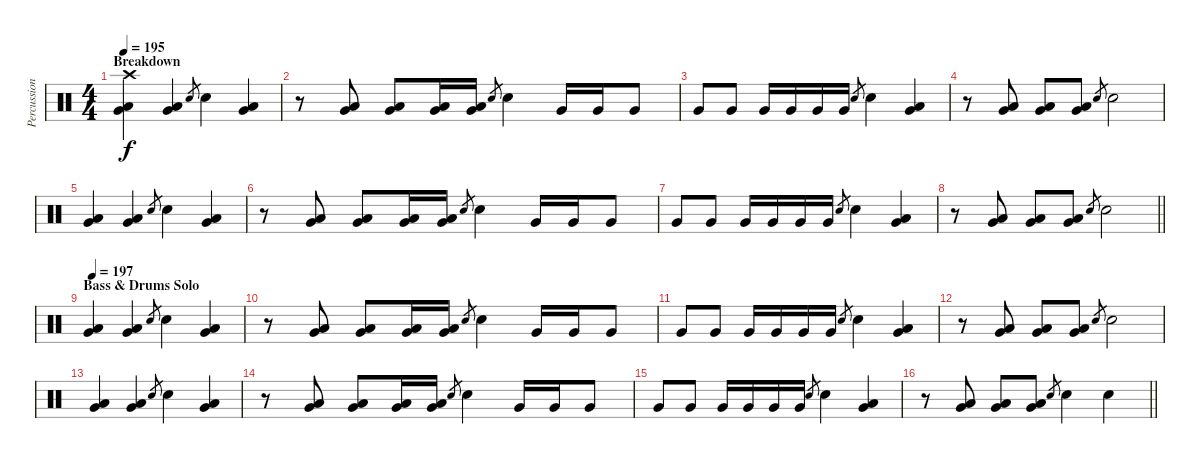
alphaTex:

\track ("Percussion" "Percussion") {instrument percussion}
\staff {score}
\articulation defaults
\ts (4 4)
\section ("" "Breakdown")
\tempo 195
\clef neutral
\ks c
("Crash high (hit)" "Very Low Tom (hit)" "Low Floor Tom (hit)").4{dy f} ("Very Low Tom (hit)" "Low Floor Tom (hit)").4 "Electric Snare (hit)".8{gr} "Electric Snare (hit)".4 ("Very Low Tom (hit)" "Low Floor Tom (hit)").4 |
r.8 ("Very Low Tom (hit)" "Low Floor Tom (hit)").8 ("Very Low Tom (hit)" "Low Floor Tom (hit)").8 ("Low Floor Tom (hit)" "Very Low Tom (hit)").16 ("Very Low Tom (hit)" "Low Floor Tom (hit)").16 "Electric Snare (hit)".8{gr} "Electric Snare (hit)".4 "Very Low Tom (hit)".16 "Very Low Tom (hit)".16 "Very Low Tom (hit)".8 |
"Very Low Tom (hit)".8 "Very Low Tom (hit)".8 "Very Low Tom (hit)".16 "Very Low Tom (hit)".16 "Very Low Tom (hit)".16 "Very Low Tom (hit)".16 "Electric Snare (hit)".8{gr} "Electric Snare (hit)".4 ("Low Floor Tom (hit)" "Very Low Tom (hit)").4 |
r.8 ("Very Low Tom (hit)" "Low Floor Tom (hit)").8 ("Low Floor Tom (hit)" "Very Low Tom (hit)").8 ("Very Low Tom (hit)" "Low Floor Tom (hit)").8 "Electric Snare (hit)".8{gr} "Electric Snare (hit)".2 |
("Very Low Tom (hit)" "Low Floor Tom (hit)").4 ("Very Low Tom (hit)" "Low Floor Tom (hit)").4 "Electric Snare (hit)".8{gr} "Electric Snare (hit)".4 ("Very Low Tom (hit)" "Low Floor Tom (hit)").4 |
r.8 ("Very Low Tom (hit)" "Low Floor Tom (hit)").8 ("Very Low Tom (hit)" "Low Floor Tom (hit)").8 ("Low Floor Tom (hit)" "Very Low Tom (hit)").16 ("Very Low Tom (hit)" "Low Floor Tom (hit)").16 "Electric Snare (hit)".8{gr} "Electric Snare (hit)".4 "Very Low Tom (hit)".16 "Very Low Tom (hit)".16 "Very Low Tom (hit)".8 |
"Very Low Tom (hit)".8 "Very Low Tom (hit)".8 "Very Low Tom (hit)".16 "Very Low Tom (hit)".16 "Very Low Tom (hit)".16 "Very Low Tom (hit)".16 "Electric Snare (hit)".8{gr} "Electric Snare (hit)".4 ("Low Floor Tom (hit)" "Very Low Tom (hit)").4 |
\barLineRight lightlight
r.8 ("Very Low Tom (hit)" "Low Floor Tom (hit)").8 ("Low Floor Tom (hit)" "Very Low Tom (hit)").8 ("Very Low Tom (hit)" "Low Floor Tom (hit)").8 "Electric Snare (hit)".8{gr} "Electric Snare (hit)".2 |
\section ("" "Bass & Drums Solo")
\tempo 197
("Very Low Tom (hit)" "Low Floor Tom (hit)").4 ("Very Low Tom (hit)" "Low Floor Tom (hit)").4 "Electric Snare (hit)".8{gr} "Electric Snare (hit)".4 ("Very Low Tom (hit)" "Low Floor Tom (hit)").4 |
r.8 ("Very Low Tom (hit)" "Low Floor Tom (hit)").8 ("Very Low Tom (hit)" "Low Floor Tom (hit)").8 ("Low Floor Tom (hit)" "Very Low Tom (hit)").16 ("Very Low Tom (hit)" "Low Floor Tom (hit)").16 "Electric Snare (hit)".8{gr} "Electric Snare (hit)".4 "Very Low Tom (hit)".16 "Very Low Tom (hit)".16 "Very Low Tom (hit)".8 |
"Very Low Tom (hit)".8 "Very Low Tom (hit)".8 "Very Low Tom (hit)".16 "Very Low Tom (hit)".16 "Very Low Tom (hit)".16 "Very Low Tom (hit)".16 "Electric Snare (hit)".8{gr} "Electric Snare (hit)".4 ("Low Floor Tom (hit)" "Very Low Tom (hit)").4 |
r.8 ("Very Low Tom (hit)" "Low Floor Tom (hit)").8 ("Low Floor Tom (hit)" "Very Low Tom (hit)").8 ("Very Low Tom (hit)" "Low Floor Tom (hit)").8 "Electric Snare (hit)".8{gr} "Electric Snare (hit)".2 |
("Very Low Tom (hit)" "Low Floor Tom (hit)").4 ("Very Low Tom (hit)" "Low Floor Tom (hit)").4 "Electric Snare (hit)".8{gr} "Electric Snare (hit)".4 ("Very Low Tom (hit)" "Low Floor Tom (hit)").4 |
r.8 ("Very Low Tom (hit)" "Low Floor Tom (hit)").8 ("Very Low Tom (hit)" "Low Floor Tom (hit)").8 ("Low Floor Tom (hit)" "Very Low Tom (hit)").16 ("Very Low Tom (hit)" "Low Floor Tom (hit)").16 "Electric Snare (hit)".8{gr} "Electric Snare (hit)".4 "Very Low Tom (hit)".16 "Very Low Tom (hit)".16 "Very Low Tom (hit)".8 |
"Very Low Tom (hit)".8 "Very Low Tom (hit)".8 "Very Low Tom (hit)".16 "Very Low Tom (hit)".16 "Very Low Tom (hit)".16 "Very Low Tom (hit)".16 "Electric Snare (hit)".8{gr} "Electric Snare (hit)".4 ("Low Floor Tom (hit)" "Very Low Tom (hit)").4 |
\barLineRight lightlight
r.8 ("Very Low Tom (hit)" "Low Floor Tom (hit)").8 ("Low Floor Tom (hit)" "Very Low Tom (hit)").8 ("Very Low Tom (hit)" "Low Floor Tom (hit)").8 "Electric Snare (hit)".8{gr} "Electric Snare (hit)".4 "Electric Snare (hit)".4
